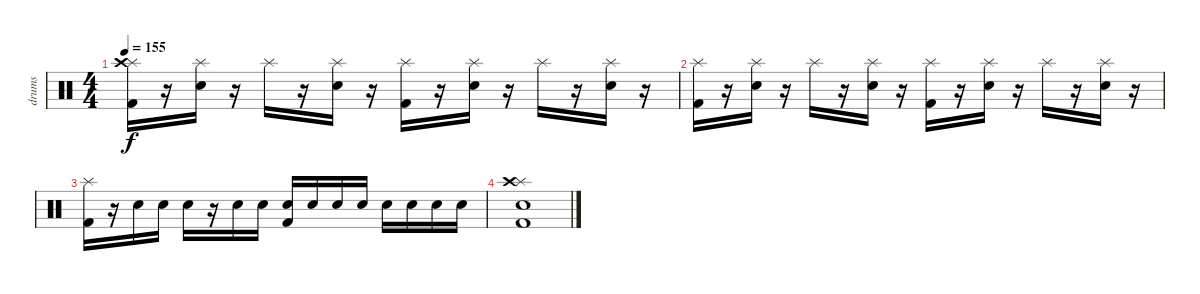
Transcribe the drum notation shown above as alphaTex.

\track ("drums" "drums") {instrument percussion}
\staff {score}
\articulation defaults
\ts (4 4)
\tempo 155
\clef neutral
\ks c
("Splash (hit)" "Crash high (hit)" "Kick (hit) 2").16{dy f} r.16 ("Splash (hit)" "Snare (hit) 2").16 r.16 "Splash (hit)".16 r.16 ("Splash (hit)" "Snare (hit) 2").16 r.16 ("Splash (hit)" "Kick (hit) 2").16 r.16 ("Splash (hit)" "Snare (hit) 2").16 r.16 "Splash (hit)".16 r.16 ("Splash (hit)" "Snare (hit) 2").16 r.16 |
("Splash (hit)" "Kick (hit) 2").16 r.16 ("Splash (hit)" "Snare (hit) 2").16 r.16 "Splash (hit)".16 r.16 ("Splash (hit)" "Snare (hit) 2").16 r.16 ("Splash (hit)" "Kick (hit) 2").16 r.16 ("Splash (hit)" "Snare (hit) 2").16 r.16 "Splash (hit)".16 r.16 ("Splash (hit)" "Snare (hit) 2").16 r.16 |
("Splash (hit)" "Kick (hit) 2").16 r.16 "Snare (hit) 2".16 "Snare (hit) 2".16 "Snare (hit) 2".16 r.16 "Snare (hit) 2".16 "Snare (hit) 2".16 ("Snare (hit) 2" "Kick (hit) 2").16 "Snare (hit) 2".16 "Snare (hit) 2".16 "Snare (hit) 2".16 "Snare (hit) 2".16 "Snare (hit) 2".16 "Snare (hit) 2".16 "Snare (hit) 2".16 |
("Splash (hit)" "Crash high (hit)" "Kick (hit) 2" "Snare (hit) 2").1
